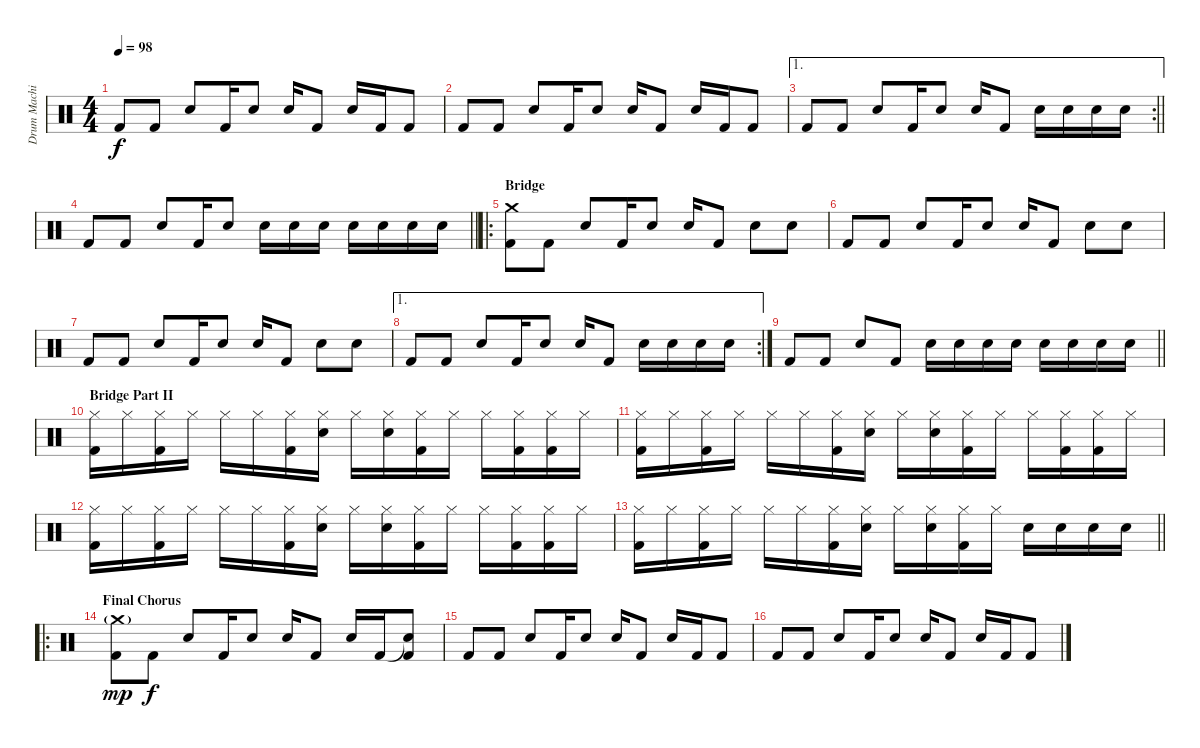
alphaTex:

\track ("Drum Machine" "Drum Machi") {instrument percussion}
\staff {score}
\articulation defaults
\ts (4 4)
\tempo 98
\clef neutral
\ks c "Kick (hit) 2".8{dy f} "Kick (hit) 2".8 "Electric Snare (hit)".8 "Kick (hit) 2".16 "Electric Snare (hit)".8 "Electric Snare (hit)".16 "Kick (hit) 2".8 "Electric Snare (hit)".16 "Kick (hit) 2".16 "Kick (hit) 2".8
|
"Kick (hit) 2".8 "Kick (hit) 2".8 "Electric Snare (hit)".8 "Kick (hit) 2".16 "Electric Snare (hit)".8 "Electric Snare (hit)".16 "Kick (hit) 2".8 "Electric Snare (hit)".16 "Kick (hit) 2".16 "Kick (hit) 2".8 |
\ae 1
\rc 2
\barLineRight lightlight "Kick (hit) 2".8 "Kick (hit) 2".8 "Electric Snare (hit)".8 "Kick (hit) 2".16 "Electric Snare (hit)".8 "Electric Snare (hit)".16 "Kick (hit) 2".8 "Electric Snare (hit)".16 "Electric Snare (hit)".16 "Electric Snare (hit)".16 "Electric Snare (hit)".16
|
\barLineRight lightlight "Kick (hit) 2".8 "Kick (hit) 2".8 "Electric Snare (hit)".8 "Kick (hit) 2".16 "Electric Snare (hit)".8 "Electric Snare (hit)".16 "Electric Snare (hit)".16 "Electric Snare (hit)".16 "Electric Snare (hit)".16 "Electric Snare (hit)".16 "Electric Snare (hit)".16 "Electric Snare (hit)".16
|
\ro
\section ("" "Bridge")
("Crash medium (hit)" "Kick (hit) 2").8 "Kick (hit) 2".8 "Electric Snare (hit)".8 "Kick (hit) 2".16 "Electric Snare (hit)".8 "Electric Snare (hit)".16 "Kick (hit) 2".8 "Electric Snare (hit)".8 "Electric Snare (hit)".8 |
"Kick (hit) 2".8 "Kick (hit) 2".8 "Electric Snare (hit)".8 "Kick (hit) 2".16 "Electric Snare (hit)".8 "Electric Snare (hit)".16 "Kick (hit) 2".8 "Electric Snare (hit)".8 "Electric Snare (hit)".8 |
"Kick (hit) 2".8 "Kick (hit) 2".8 "Electric Snare (hit)".8 "Kick (hit) 2".16 "Electric Snare (hit)".8 "Electric Snare (hit)".16 "Kick (hit) 2".8 "Electric Snare (hit)".8 "Electric Snare (hit)".8 |
\ae 1
\rc 2 "Kick (hit) 2".8 "Kick (hit) 2".8 "Electric Snare (hit)".8 "Kick (hit) 2".16 "Electric Snare (hit)".8 "Electric Snare (hit)".16 "Kick (hit) 2".8 "Electric Snare (hit)".16 "Electric Snare (hit)".16 "Electric Snare (hit)".16 "Electric Snare (hit)".16
|
\barLineRight lightlight "Kick (hit) 2".8 "Kick (hit) 2".8 "Electric Snare (hit)".8 "Kick (hit) 2".8 "Electric Snare (hit)".16 "Electric Snare (hit)".16 "Electric Snare (hit)".16 "Electric Snare (hit)".16 "Electric Snare (hit)".16 "Electric Snare (hit)".16 "Electric Snare (hit)".16 "Electric Snare (hit)".16
|
\section ("" "Bridge Part II")
("Hi-Hat (closed)" "Kick (hit) 2").16 "Hi-Hat (closed)".16 ("Hi-Hat (closed)" "Kick (hit) 2").16 "Hi-Hat (closed)".16 "Hi-Hat (closed)".16 "Hi-Hat (closed)".16 ("Hi-Hat (closed)" "Kick (hit) 2").16 ("Hi-Hat (closed)" "Electric Snare (hit)").16 "Hi-Hat (closed)".16 ("Hi-Hat (closed)" "Electric Snare (hit)").16 ("Hi-Hat (closed)" "Kick (hit) 2").16 "Hi-Hat (closed)".16 "Hi-Hat (closed)".16 ("Hi-Hat (closed)" "Kick (hit) 2").16 ("Hi-Hat (closed)" "Kick (hit) 2").16 "Hi-Hat (closed)".16 |
("Hi-Hat (closed)" "Kick (hit) 2").16 "Hi-Hat (closed)".16 ("Hi-Hat (closed)" "Kick (hit) 2").16 "Hi-Hat (closed)".16 "Hi-Hat (closed)".16 "Hi-Hat (closed)".16 ("Hi-Hat (closed)" "Kick (hit) 2").16 ("Hi-Hat (closed)" "Electric Snare (hit)").16 "Hi-Hat (closed)".16 ("Hi-Hat (closed)" "Electric Snare (hit)").16 ("Hi-Hat (closed)" "Kick (hit) 2").16 "Hi-Hat (closed)".16 "Hi-Hat (closed)".16 ("Hi-Hat (closed)" "Kick (hit) 2").16 ("Hi-Hat (closed)" "Kick (hit) 2").16 "Hi-Hat (closed)".16 |
("Hi-Hat (closed)" "Kick (hit) 2").16 "Hi-Hat (closed)".16 ("Hi-Hat (closed)" "Kick (hit) 2").16 "Hi-Hat (closed)".16 "Hi-Hat (closed)".16 "Hi-Hat (closed)".16 ("Hi-Hat (closed)" "Kick (hit) 2").16 ("Hi-Hat (closed)" "Electric Snare (hit)").16 "Hi-Hat (closed)".16 ("Hi-Hat (closed)" "Electric Snare (hit)").16 ("Hi-Hat (closed)" "Kick (hit) 2").16 "Hi-Hat (closed)".16 "Hi-Hat (closed)".16 ("Hi-Hat (closed)" "Kick (hit) 2").16 ("Hi-Hat (closed)" "Kick (hit) 2").16 "Hi-Hat (closed)".16 |
\barLineRight lightlight
("Hi-Hat (closed)" "Kick (hit) 2").16 "Hi-Hat (closed)".16 ("Hi-Hat (closed)" "Kick (hit) 2").16 "Hi-Hat (closed)".16 "Hi-Hat (closed)".16 "Hi-Hat (closed)".16 ("Hi-Hat (closed)" "Kick (hit) 2").16 ("Hi-Hat (closed)" "Electric Snare (hit)").16 "Hi-Hat (closed)".16 ("Hi-Hat (closed)" "Electric Snare (hit)").16 ("Hi-Hat (closed)" "Kick (hit) 2").16 "Hi-Hat (closed)".16 "Electric Snare (hit)".16 "Electric Snare (hit)".16 "Electric Snare (hit)".16 "Electric Snare (hit)".16 |
\ro
\section ("" "Final Chorus")
("Crash medium (hit)"{g} "Kick (hit) 2").8{dy mp volume 9} "Kick (hit) 2".8{dy f} "Electric Snare (hit)".8 "Kick (hit) 2".16 "Electric Snare (hit)".8 "Electric Snare (hit)".16 "Kick (hit) 2".8 "Electric Snare (hit)".16 "Kick (hit) 2".16 ("Snare (hit)"{t} "Kick (hit) 2").8 |
"Kick (hit) 2".8 "Kick (hit) 2".8 "Electric Snare (hit)".8 "Kick (hit) 2".16 "Electric Snare (hit)".8 "Electric Snare (hit)".16 "Kick (hit) 2".8 "Electric Snare (hit)".16 "Kick (hit) 2".16 "Kick (hit) 2".8 |
"Kick (hit) 2".8 "Kick (hit) 2".8 "Electric Snare (hit)".8 "Kick (hit) 2".16 "Electric Snare (hit)".8 "Electric Snare (hit)".16 "Kick (hit) 2".8 "Electric Snare (hit)".16 "Kick (hit) 2".16 "Kick (hit) 2".8
